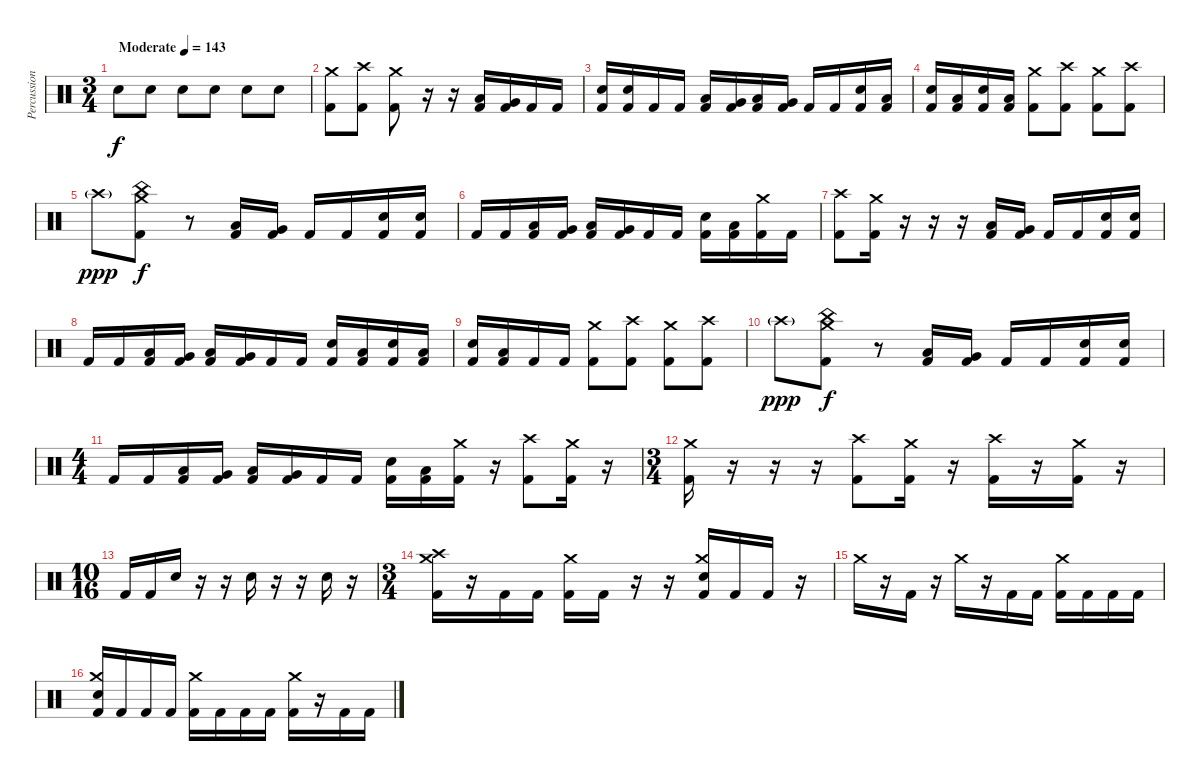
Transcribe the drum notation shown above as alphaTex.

\track ("Percussion" "Percussion") {instrument percussion}
\staff {score}
\articulation defaults
\ts (3 4)
\tempo (143 "Moderate")
\clef neutral
\ks c "Electric Snare (hit)".8{dy f} "Electric Snare (hit)".8 "Electric Snare (hit)".8 "Electric Snare (hit)".8 "Electric Snare (hit)".8 "Electric Snare (hit)".8
|
("Crash medium (hit)" "Kick (hit) 2").8 ("Crash high (hit)" "Kick (hit) 2").8 ("Crash medium (hit)" "Kick (hit) 2").8 r.16 r.16 ("Low Tom (hit)" "Kick (hit) 2").16 ("Very Low Tom (hit)" "Kick (hit) 2").16 "Kick (hit) 2".16 "Kick (hit) 2".16 |
("Electric Snare (hit)" "Kick (hit) 2").16 ("Electric Snare (hit)" "Kick (hit) 2").16 "Kick (hit) 2".16 "Kick (hit) 2".16 ("Low Tom (hit)" "Kick (hit) 2").16 ("Very Low Tom (hit)" "Kick (hit) 2").16 ("Low Tom (hit)" "Kick (hit) 2").16 ("Very Low Tom (hit)" "Kick (hit) 2").16 "Kick (hit) 2".16 "Kick (hit) 2".16 ("Electric Snare (hit)" "Kick (hit) 2").16 ("Low Tom (hit)" "Kick (hit) 2").16 |
("Electric Snare (hit)" "Kick (hit) 2").16 ("Low Tom (hit)" "Kick (hit) 2").16 ("Electric Snare (hit)" "Kick (hit) 2").16 ("Low Tom (hit)" "Kick (hit) 2").16 ("Crash medium (hit)" "Kick (hit) 2").8 ("Crash high (hit)" "Kick (hit) 2").8 ("Crash medium (hit)" "Kick (hit) 2").8 ("Crash high (hit)" "Kick (hit) 2").8 |
"Crash high (hit)"{g}.8{dy ppp} ("Crash medium (hit)" "China (hit)" "Kick (hit) 2").8{dy f} r.8 ("Low Tom (hit)" "Kick (hit) 2").16 ("Very Low Tom (hit)" "Kick (hit) 2").16 "Kick (hit) 2".16 "Kick (hit) 2".16 ("Electric Snare (hit)" "Kick (hit) 2").16 ("Electric Snare (hit)" "Kick (hit) 2").16 |
"Kick (hit) 2".16 "Kick (hit) 2".16 ("Low Tom (hit)" "Kick (hit) 2").16 ("Very Low Tom (hit)" "Kick (hit) 2").16 ("Low Tom (hit)" "Kick (hit) 2").16 ("Very Low Tom (hit)" "Kick (hit) 2").16 "Kick (hit) 2".16 "Kick (hit) 2".16 ("Electric Snare (hit)" "Kick (hit) 2").16 ("Low Tom (hit)" "Kick (hit) 2").16 ("Crash medium (hit)" "Kick (hit) 2").16 "Kick (hit) 2".16 |
("Crash high (hit)" "Kick (hit) 2").8 ("Crash medium (hit)" "Kick (hit) 2").16 r.16 r.16 r.16 ("Low Tom (hit)" "Kick (hit) 2").16 ("Very Low Tom (hit)" "Kick (hit) 2").16 "Kick (hit) 2".16 "Kick (hit) 2".16 ("Electric Snare (hit)" "Kick (hit) 2").16 ("Electric Snare (hit)" "Kick (hit) 2").16 |
"Kick (hit) 2".16 "Kick (hit) 2".16 ("Low Tom (hit)" "Kick (hit) 2").16 ("Very Low Tom (hit)" "Kick (hit) 2").16 ("Low Tom (hit)" "Kick (hit) 2").16 ("Very Low Tom (hit)" "Kick (hit) 2").16 "Kick (hit) 2".16 "Kick (hit) 2".16 ("Electric Snare (hit)" "Kick (hit) 2").16 ("Low Tom (hit)" "Kick (hit) 2").16 ("Electric Snare (hit)" "Kick (hit) 2").16 ("Low Tom (hit)" "Kick (hit) 2").16 |
("Electric Snare (hit)" "Kick (hit) 2").16 ("Low Tom (hit)" "Kick (hit) 2").16 "Kick (hit) 2".16 "Kick (hit) 2".16 ("Crash medium (hit)" "Kick (hit) 2").8 ("Crash high (hit)" "Kick (hit) 2").8 ("Crash medium (hit)" "Kick (hit) 2").8 ("Crash high (hit)" "Kick (hit) 2").8 |
"Crash high (hit)"{g}.8{dy ppp} ("Crash medium (hit)" "China (hit)" "Kick (hit) 2").8{dy f} r.8 ("Low Tom (hit)" "Kick (hit) 2").16 ("Very Low Tom (hit)" "Kick (hit) 2").16 "Kick (hit) 2".16 "Kick (hit) 2".16 ("Electric Snare (hit)" "Kick (hit) 2").16 ("Electric Snare (hit)" "Kick (hit) 2").16 |
\ts (4 4)
"Kick (hit) 2".16 "Kick (hit) 2".16 ("Low Tom (hit)" "Kick (hit) 2").16 ("Very Low Tom (hit)" "Kick (hit) 2").16 ("Low Tom (hit)" "Kick (hit) 2").16 ("Very Low Tom (hit)" "Kick (hit) 2").16 "Kick (hit) 2".16 "Kick (hit) 2".16 ("Electric Snare (hit)" "Kick (hit) 2").16 ("Low Tom (hit)" "Kick (hit) 2").16 ("Crash medium (hit)" "Kick (hit) 2").16 r.16 ("Crash high (hit)" "Kick (hit) 2").8 ("Crash medium (hit)" "Kick (hit) 2").16 r.16 |
\ts (3 4)
("Crash medium (hit)" "Kick (hit) 2").16 r.16 r.16 r.16 ("Crash high (hit)" "Kick (hit) 2").8 ("Crash medium (hit)" "Kick (hit) 2").16 r.16 ("Crash high (hit)" "Kick (hit) 2").16 r.16 ("Crash medium (hit)" "Kick (hit) 2").16 r.16 |
\ts (10 16)
"Kick (hit) 2".16 "Kick (hit) 2".16 "Electric Snare (hit)".16 r.16 r.16 "Electric Snare (hit)".16 r.16 r.16 "Electric Snare (hit)".16 r.16 |
\ts (3 4)
("Crash medium (hit)" "Crash high (hit)" "Kick (hit) 2").16 r.16 "Kick (hit) 2".16 "Kick (hit) 2".16 ("Crash medium (hit)" "Kick (hit) 2").16 "Kick (hit) 2".16 r.16 r.16 ("Crash medium (hit)" "Electric Snare (hit)" "Kick (hit) 2").16 "Kick (hit) 2".16 "Kick (hit) 2".16 r.16 |
"Crash medium (hit)".16 r.16 "Kick (hit) 2".16 r.16 "Crash medium (hit)".16 r.16 "Kick (hit) 2".16 "Kick (hit) 2".16 ("Crash medium (hit)" "Kick (hit) 2").16 "Kick (hit) 2".16 "Kick (hit) 2".16 "Kick (hit) 2".16 |
("Crash medium (hit)" "Electric Snare (hit)" "Kick (hit) 2").16 "Kick (hit) 2".16 "Kick (hit) 2".16 "Kick (hit) 2".16 ("Crash medium (hit)" "Kick (hit) 2").16 "Kick (hit) 2".16 "Kick (hit) 2".16 "Kick (hit) 2".16 ("Crash medium (hit)" "Kick (hit) 2").16 r.16 "Kick (hit) 2".16 "Kick (hit) 2".16
